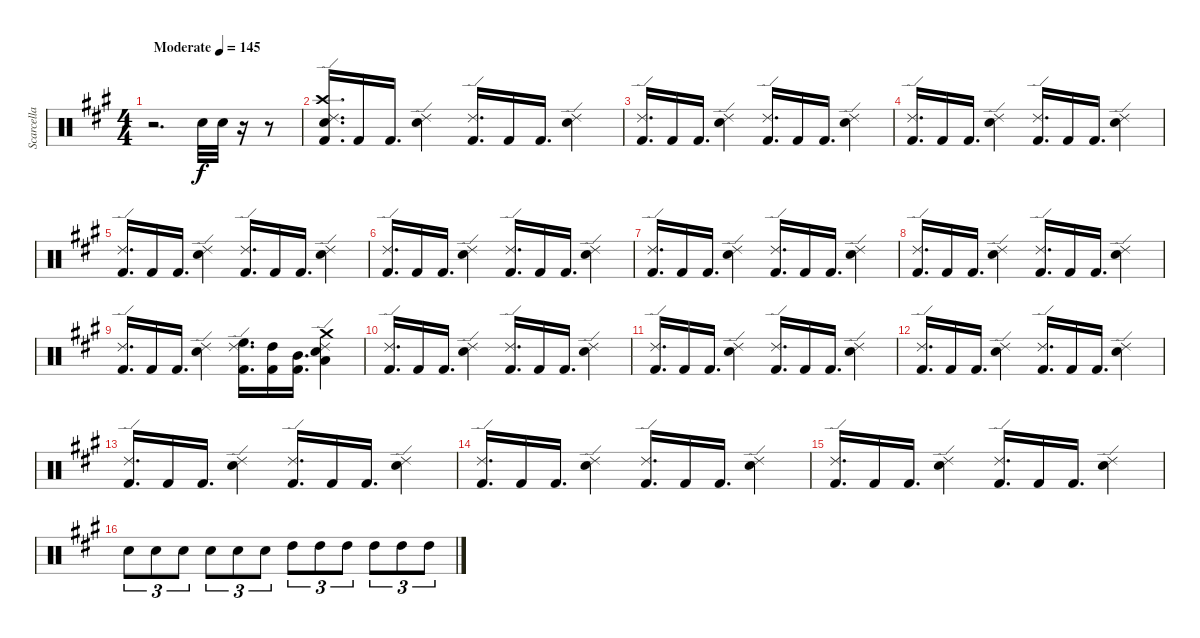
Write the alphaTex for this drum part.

\track ("Scarcella" "Scarcella") {instrument percussion}
\staff {score}
\articulation defaults
\ts (4 4)
\tempo (145 "Moderate")
\clef neutral
\ks f#minor
r.2{d dy f} "Snare (hit) 2".32 "Snare (hit) 2".32 r.16 r.8 |
("Crash high (hit)" "Ride (edge) 2" "Kick (hit) 2" "Snare (hit) 2").16{d} "Kick (hit) 2".16 "Kick (hit) 2".16{d} ("Ride (edge) 2" "Snare (hit) 2").4 ("Ride (edge) 2" "Kick (hit) 2").16{d} "Kick (hit) 2".16 "Kick (hit) 2".16{d} ("Ride (edge) 2" "Snare (hit) 2").4 |
("Ride (edge) 2" "Kick (hit) 2").16{d} "Kick (hit) 2".16 "Kick (hit) 2".16{d} ("Ride (edge) 2" "Snare (hit) 2").4 ("Ride (edge) 2" "Kick (hit) 2").16{d} "Kick (hit) 2".16 "Kick (hit) 2".16{d} ("Ride (edge) 2" "Snare (hit) 2").4 |
("Ride (edge) 2" "Kick (hit) 2").16{d} "Kick (hit) 2".16 "Kick (hit) 2".16{d} ("Ride (edge) 2" "Snare (hit) 2").4 ("Ride (edge) 2" "Kick (hit) 2").16{d} "Kick (hit) 2".16 "Kick (hit) 2".16{d} ("Ride (edge) 2" "Snare (hit) 2").4 |
("Ride (edge) 2" "Kick (hit) 2").16{d} "Kick (hit) 2".16 "Kick (hit) 2".16{d} ("Ride (edge) 2" "Snare (hit) 2").4 ("Ride (edge) 2" "Kick (hit) 2").16{d} "Kick (hit) 2".16 "Kick (hit) 2".16{d} ("Ride (edge) 2" "Snare (hit) 2").4 |
("Ride (edge) 2" "Kick (hit) 2").16{d} "Kick (hit) 2".16 "Kick (hit) 2".16{d} ("Ride (edge) 2" "Snare (hit) 2").4 ("Ride (edge) 2" "Kick (hit) 2").16{d} "Kick (hit) 2".16 "Kick (hit) 2".16{d} ("Ride (edge) 2" "Snare (hit) 2").4 |
("Ride (edge) 2" "Kick (hit) 2").16{d} "Kick (hit) 2".16 "Kick (hit) 2".16{d} ("Ride (edge) 2" "Snare (hit) 2").4 ("Ride (edge) 2" "Kick (hit) 2").16{d} "Kick (hit) 2".16 "Kick (hit) 2".16{d} ("Ride (edge) 2" "Snare (hit) 2").4 |
("Ride (edge) 2" "Kick (hit) 2").16{d} "Kick (hit) 2".16 "Kick (hit) 2".16{d} ("Ride (edge) 2" "Snare (hit) 2").4 ("Ride (edge) 2" "Kick (hit) 2").16{d} "Kick (hit) 2".16 "Kick (hit) 2".16{d} ("Ride (edge) 2" "Snare (hit) 2").4 |
("Ride (edge) 2" "Kick (hit) 2").16{d} "Kick (hit) 2".16 "Kick (hit) 2".16{d} ("Ride (edge) 2" "Snare (hit) 2").4 ("Ride (edge) 2" "Kick (hit) 2" "High Floor Tom (hit)").16{d} ("Kick (hit) 2" "High Tom (hit)").16 ("Kick (hit) 2" "Mid Tom (hit)").16{d} ("Ride (edge) 2" "Snare (hit) 2" "Crash medium (hit)" "Low Tom (hit)").4 |
("Ride (edge) 2" "Kick (hit) 2").16{d} "Kick (hit) 2".16 "Kick (hit) 2".16{d} ("Ride (edge) 2" "Snare (hit) 2").4 ("Ride (edge) 2" "Kick (hit) 2").16{d} "Kick (hit) 2".16 "Kick (hit) 2".16{d} ("Ride (edge) 2" "Snare (hit) 2").4 |
("Ride (edge) 2" "Kick (hit) 2").16{d} "Kick (hit) 2".16 "Kick (hit) 2".16{d} ("Ride (edge) 2" "Snare (hit) 2").4 ("Ride (edge) 2" "Kick (hit) 2").16{d} "Kick (hit) 2".16 "Kick (hit) 2".16{d} ("Ride (edge) 2" "Snare (hit) 2").4 |
("Ride (edge) 2" "Kick (hit) 2").16{d} "Kick (hit) 2".16 "Kick (hit) 2".16{d} ("Ride (edge) 2" "Snare (hit) 2").4 ("Ride (edge) 2" "Kick (hit) 2").16{d} "Kick (hit) 2".16 "Kick (hit) 2".16{d} ("Ride (edge) 2" "Snare (hit) 2").4 |
("Ride (edge) 2" "Kick (hit) 2").16{d} "Kick (hit) 2".16 "Kick (hit) 2".16{d} ("Ride (edge) 2" "Snare (hit) 2").4 ("Ride (edge) 2" "Kick (hit) 2").16{d} "Kick (hit) 2".16 "Kick (hit) 2".16{d} ("Ride (edge) 2" "Snare (hit) 2").4 |
("Ride (edge) 2" "Kick (hit) 2").16{d} "Kick (hit) 2".16 "Kick (hit) 2".16{d} ("Ride (edge) 2" "Snare (hit) 2").4 ("Ride (edge) 2" "Kick (hit) 2").16{d} "Kick (hit) 2".16 "Kick (hit) 2".16{d} ("Ride (edge) 2" "Snare (hit) 2").4 |
("Ride (edge) 2" "Kick (hit) 2").16{d} "Kick (hit) 2".16 "Kick (hit) 2".16{d} ("Ride (edge) 2" "Snare (hit) 2").4 ("Ride (edge) 2" "Kick (hit) 2").16{d} "Kick (hit) 2".16 "Kick (hit) 2".16{d} ("Ride (edge) 2" "Snare (hit) 2").4 |
"Snare (hit) 2".8{tu (3 2)} "Snare (hit) 2".8{tu (3 2)} "Snare (hit) 2".8{tu (3 2)} "Snare (hit) 2".8{tu (3 2)} "Snare (hit) 2".8{tu (3 2)} "Snare (hit) 2".8{tu (3 2)} "High Tom (hit)".8{tu (3 2)} "High Tom (hit)".8{tu (3 2)} "High Tom (hit)".8{tu (3 2)} "High Tom (hit)".8{tu (3 2)} "High Tom (hit)".8{tu (3 2)} "High Tom (hit)".8{tu (3 2)}
